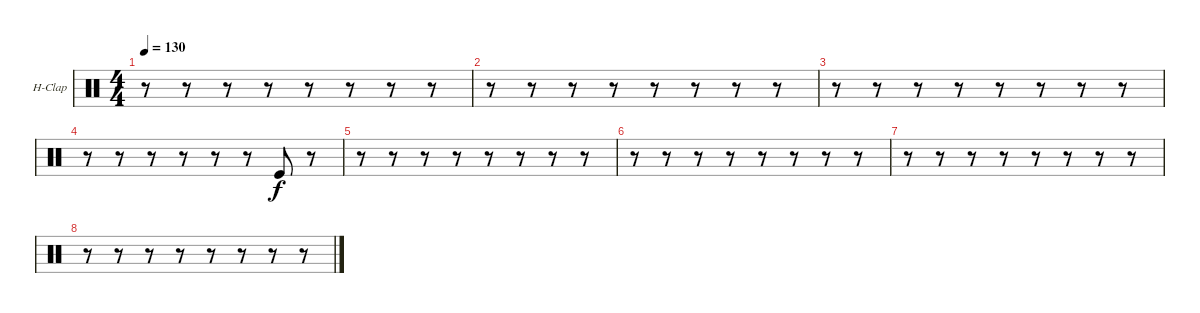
\bracketExtendMode groupsimilarinstruments
\firstSystemTrackNameOrientation horizontal
\otherSystemsTrackNameOrientation horizontal
\track ("Hand Clap" "H-Clap") {instrument percussion}
\staff {score}
\articulation defaults
\ts (4 4)
\tempo 130
\clef neutral
\ks c
r.8{dy f} r.8 r.8 r.8 r.8 r.8 r.8 r.8 |
r.8 r.8 r.8 r.8 r.8 r.8 r.8 r.8 |
r.8 r.8 r.8 r.8 r.8 r.8 r.8 r.8 |
r.8 r.8 r.8 r.8 r.8 r.8 "Kick (hit)".8 r.8 |
r.8 r.8 r.8 r.8 r.8 r.8 r.8 r.8 |
r.8 r.8 r.8 r.8 r.8 r.8 r.8 r.8 |
r.8 r.8 r.8 r.8 r.8 r.8 r.8 r.8 |
r.8 r.8 r.8 r.8 r.8 r.8 r.8 r.8
